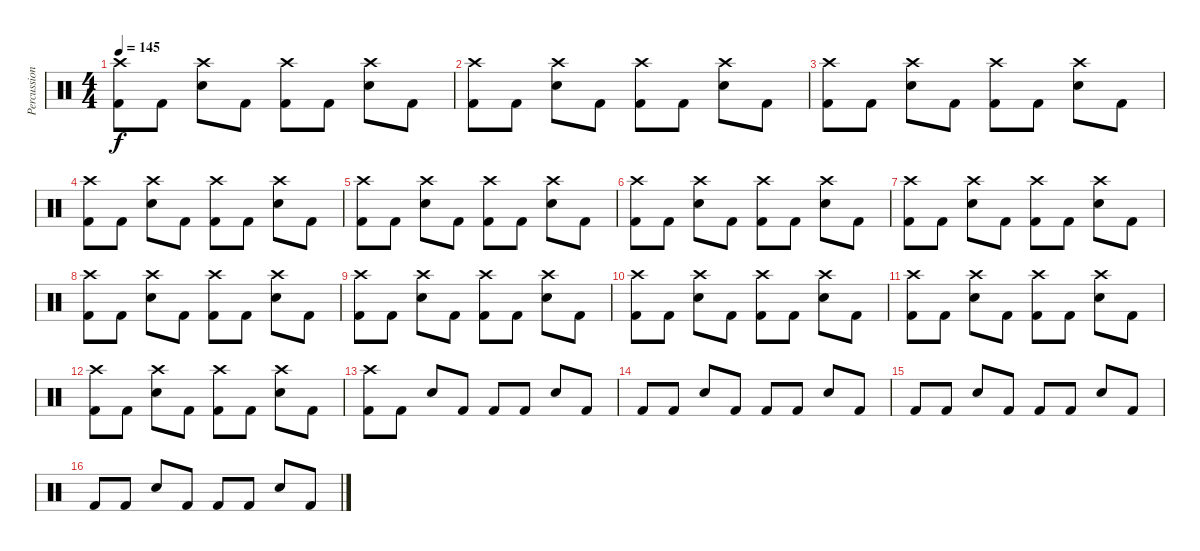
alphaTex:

\track ("Percussion" "Percussion") {instrument percussion}
\staff {score}
\articulation defaults
\ts (4 4)
\tempo 145
\clef neutral
\ks c
("Crash high (hit)" "Kick (hit) 2").8{dy f} "Kick (hit) 2".8 ("Crash high (hit)" "Electric Snare (hit)").8 "Kick (hit) 2".8 ("Crash high (hit)" "Kick (hit) 2").8 "Kick (hit) 2".8 ("Crash high (hit)" "Electric Snare (hit)").8 "Kick (hit) 2".8 |
("Crash high (hit)" "Kick (hit) 2").8 "Kick (hit) 2".8 ("Crash high (hit)" "Electric Snare (hit)").8 "Kick (hit) 2".8 ("Crash high (hit)" "Kick (hit) 2").8 "Kick (hit) 2".8 ("Crash high (hit)" "Electric Snare (hit)").8 "Kick (hit) 2".8 |
("Crash high (hit)" "Kick (hit) 2").8 "Kick (hit) 2".8 ("Crash high (hit)" "Electric Snare (hit)").8 "Kick (hit) 2".8 ("Crash high (hit)" "Kick (hit) 2").8 "Kick (hit) 2".8 ("Crash high (hit)" "Electric Snare (hit)").8 "Kick (hit) 2".8 |
("Crash high (hit)" "Kick (hit) 2").8 "Kick (hit) 2".8 ("Crash high (hit)" "Electric Snare (hit)").8 "Kick (hit) 2".8 ("Crash high (hit)" "Kick (hit) 2").8 "Kick (hit) 2".8 ("Crash high (hit)" "Electric Snare (hit)").8 "Kick (hit) 2".8 |
("Crash high (hit)" "Kick (hit) 2").8 "Kick (hit) 2".8 ("Crash high (hit)" "Electric Snare (hit)").8 "Kick (hit) 2".8 ("Crash high (hit)" "Kick (hit) 2").8 "Kick (hit) 2".8 ("Crash high (hit)" "Electric Snare (hit)").8 "Kick (hit) 2".8 |
("Crash high (hit)" "Kick (hit) 2").8 "Kick (hit) 2".8 ("Crash high (hit)" "Electric Snare (hit)").8 "Kick (hit) 2".8 ("Crash high (hit)" "Kick (hit) 2").8 "Kick (hit) 2".8 ("Crash high (hit)" "Electric Snare (hit)").8 "Kick (hit) 2".8 |
("Crash high (hit)" "Kick (hit) 2").8 "Kick (hit) 2".8 ("Crash high (hit)" "Electric Snare (hit)").8 "Kick (hit) 2".8 ("Crash high (hit)" "Kick (hit) 2").8 "Kick (hit) 2".8 ("Crash high (hit)" "Electric Snare (hit)").8 "Kick (hit) 2".8 |
("Crash high (hit)" "Kick (hit) 2").8 "Kick (hit) 2".8 ("Crash high (hit)" "Electric Snare (hit)").8 "Kick (hit) 2".8 ("Crash high (hit)" "Kick (hit) 2").8 "Kick (hit) 2".8 ("Crash high (hit)" "Electric Snare (hit)").8 "Kick (hit) 2".8 |
("Crash high (hit)" "Kick (hit) 2").8 "Kick (hit) 2".8 ("Crash high (hit)" "Electric Snare (hit)").8 "Kick (hit) 2".8 ("Crash high (hit)" "Kick (hit) 2").8 "Kick (hit) 2".8 ("Crash high (hit)" "Electric Snare (hit)").8 "Kick (hit) 2".8 |
("Crash high (hit)" "Kick (hit) 2").8 "Kick (hit) 2".8 ("Crash high (hit)" "Electric Snare (hit)").8 "Kick (hit) 2".8 ("Crash high (hit)" "Kick (hit) 2").8 "Kick (hit) 2".8 ("Crash high (hit)" "Electric Snare (hit)").8 "Kick (hit) 2".8 |
("Crash high (hit)" "Kick (hit) 2").8 "Kick (hit) 2".8 ("Crash high (hit)" "Electric Snare (hit)").8 "Kick (hit) 2".8 ("Crash high (hit)" "Kick (hit) 2").8 "Kick (hit) 2".8 ("Crash high (hit)" "Electric Snare (hit)").8 "Kick (hit) 2".8 |
("Crash high (hit)" "Kick (hit) 2").8 "Kick (hit) 2".8 ("Crash high (hit)" "Electric Snare (hit)").8 "Kick (hit) 2".8 ("Crash high (hit)" "Kick (hit) 2").8 "Kick (hit) 2".8 ("Crash high (hit)" "Electric Snare (hit)").8 "Kick (hit) 2".8 |
("Crash high (hit)" "Kick (hit) 2").8 "Kick (hit) 2".8 "Electric Snare (hit)".8 "Kick (hit) 2".8 "Kick (hit) 2".8 "Kick (hit) 2".8 "Electric Snare (hit)".8 "Kick (hit) 2".8 |
"Kick (hit) 2".8 "Kick (hit) 2".8 "Electric Snare (hit)".8 "Kick (hit) 2".8 "Kick (hit) 2".8 "Kick (hit) 2".8 "Electric Snare (hit)".8 "Kick (hit) 2".8 |
"Kick (hit) 2".8 "Kick (hit) 2".8 "Electric Snare (hit)".8 "Kick (hit) 2".8 "Kick (hit) 2".8 "Kick (hit) 2".8 "Electric Snare (hit)".8 "Kick (hit) 2".8 |
"Kick (hit) 2".8 "Kick (hit) 2".8 "Electric Snare (hit)".8 "Kick (hit) 2".8 "Kick (hit) 2".8 "Kick (hit) 2".8 "Electric Snare (hit)".8 "Kick (hit) 2".8
